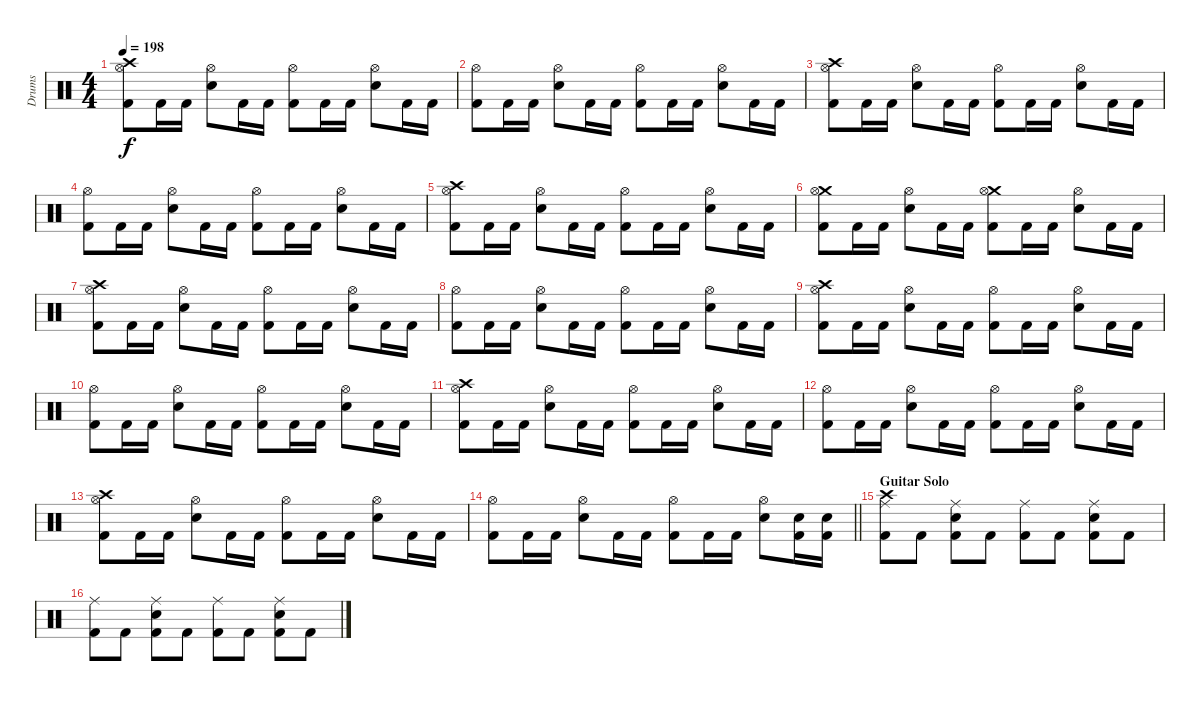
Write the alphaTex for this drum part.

\track ("Drums" "Drums") {instrument percussion}
\staff {score}
\articulation defaults
\ts (4 4)
\tempo 198
\clef neutral
\ks c
("Crash high (hit)" "Hi-Hat (open)" "Kick (hit) 2").8{dy f} "Kick (hit) 2".16 "Kick (hit) 2".16 ("Hi-Hat (open)" "Snare (hit) 2").8 "Kick (hit) 2".16 "Kick (hit) 2".16 ("Hi-Hat (open)" "Kick (hit) 2").8 "Kick (hit) 2".16 "Kick (hit) 2".16 ("Hi-Hat (open)" "Snare (hit) 2").8 "Kick (hit) 2".16 "Kick (hit) 2".16 |
("Hi-Hat (open)" "Kick (hit) 2").8 "Kick (hit) 2".16 "Kick (hit) 2".16 ("Hi-Hat (open)" "Snare (hit) 2").8 "Kick (hit) 2".16 "Kick (hit) 2".16 ("Hi-Hat (open)" "Kick (hit) 2").8 "Kick (hit) 2".16 "Kick (hit) 2".16 ("Hi-Hat (open)" "Snare (hit) 2").8 "Kick (hit) 2".16 "Kick (hit) 2".16 |
("Crash high (hit)" "Hi-Hat (open)" "Kick (hit) 2").8 "Kick (hit) 2".16 "Kick (hit) 2".16 ("Hi-Hat (open)" "Snare (hit) 2").8 "Kick (hit) 2".16 "Kick (hit) 2".16 ("Hi-Hat (open)" "Kick (hit) 2").8 "Kick (hit) 2".16 "Kick (hit) 2".16 ("Hi-Hat (open)" "Snare (hit) 2").8 "Kick (hit) 2".16 "Kick (hit) 2".16 |
("Hi-Hat (open)" "Kick (hit) 2").8 "Kick (hit) 2".16 "Kick (hit) 2".16 ("Hi-Hat (open)" "Snare (hit) 2").8 "Kick (hit) 2".16 "Kick (hit) 2".16 ("Hi-Hat (open)" "Kick (hit) 2").8 "Kick (hit) 2".16 "Kick (hit) 2".16 ("Hi-Hat (open)" "Snare (hit) 2").8 "Kick (hit) 2".16 "Kick (hit) 2".16 |
("Crash high (hit)" "Hi-Hat (open)" "Kick (hit) 2").8 "Kick (hit) 2".16 "Kick (hit) 2".16 ("Hi-Hat (open)" "Snare (hit) 2").8 "Kick (hit) 2".16 "Kick (hit) 2".16 ("Hi-Hat (open)" "Kick (hit) 2").8 "Kick (hit) 2".16 "Kick (hit) 2".16 ("Hi-Hat (open)" "Snare (hit) 2").8 "Kick (hit) 2".16 "Kick (hit) 2".16 |
("Crash medium (hit)" "Hi-Hat (open)" "Kick (hit) 2").8 "Kick (hit) 2".16 "Kick (hit) 2".16 ("Hi-Hat (open)" "Snare (hit) 2").8 "Kick (hit) 2".16 "Kick (hit) 2".16 ("Crash medium (hit)" "Hi-Hat (open)" "Kick (hit) 2").8 "Kick (hit) 2".16 "Kick (hit) 2".16 ("Hi-Hat (open)" "Snare (hit) 2").8 "Kick (hit) 2".16 "Kick (hit) 2".16 |
("Crash high (hit)" "Hi-Hat (open)" "Kick (hit) 2").8 "Kick (hit) 2".16 "Kick (hit) 2".16 ("Hi-Hat (open)" "Snare (hit) 2").8 "Kick (hit) 2".16 "Kick (hit) 2".16 ("Hi-Hat (open)" "Kick (hit) 2").8 "Kick (hit) 2".16 "Kick (hit) 2".16 ("Hi-Hat (open)" "Snare (hit) 2").8 "Kick (hit) 2".16 "Kick (hit) 2".16 |
("Hi-Hat (open)" "Kick (hit) 2").8 "Kick (hit) 2".16 "Kick (hit) 2".16 ("Hi-Hat (open)" "Snare (hit) 2").8 "Kick (hit) 2".16 "Kick (hit) 2".16 ("Hi-Hat (open)" "Kick (hit) 2").8 "Kick (hit) 2".16 "Kick (hit) 2".16 ("Hi-Hat (open)" "Snare (hit) 2").8 "Kick (hit) 2".16 "Kick (hit) 2".16 |
("Crash high (hit)" "Hi-Hat (open)" "Kick (hit) 2").8 "Kick (hit) 2".16 "Kick (hit) 2".16 ("Hi-Hat (open)" "Snare (hit) 2").8 "Kick (hit) 2".16 "Kick (hit) 2".16 ("Hi-Hat (open)" "Kick (hit) 2").8 "Kick (hit) 2".16 "Kick (hit) 2".16 ("Hi-Hat (open)" "Snare (hit) 2").8 "Kick (hit) 2".16 "Kick (hit) 2".16 |
("Hi-Hat (open)" "Kick (hit) 2").8 "Kick (hit) 2".16 "Kick (hit) 2".16 ("Hi-Hat (open)" "Snare (hit) 2").8 "Kick (hit) 2".16 "Kick (hit) 2".16 ("Hi-Hat (open)" "Kick (hit) 2").8 "Kick (hit) 2".16 "Kick (hit) 2".16 ("Hi-Hat (open)" "Snare (hit) 2").8 "Kick (hit) 2".16 "Kick (hit) 2".16 |
("Crash high (hit)" "Hi-Hat (open)" "Kick (hit) 2").8 "Kick (hit) 2".16 "Kick (hit) 2".16 ("Hi-Hat (open)" "Snare (hit) 2").8 "Kick (hit) 2".16 "Kick (hit) 2".16 ("Hi-Hat (open)" "Kick (hit) 2").8 "Kick (hit) 2".16 "Kick (hit) 2".16 ("Hi-Hat (open)" "Snare (hit) 2").8 "Kick (hit) 2".16 "Kick (hit) 2".16 |
("Hi-Hat (open)" "Kick (hit) 2").8 "Kick (hit) 2".16 "Kick (hit) 2".16 ("Hi-Hat (open)" "Snare (hit) 2").8 "Kick (hit) 2".16 "Kick (hit) 2".16 ("Hi-Hat (open)" "Kick (hit) 2").8 "Kick (hit) 2".16 "Kick (hit) 2".16 ("Hi-Hat (open)" "Snare (hit) 2").8 "Kick (hit) 2".16 "Kick (hit) 2".16 |
("Crash high (hit)" "Hi-Hat (open)" "Kick (hit) 2").8 "Kick (hit) 2".16 "Kick (hit) 2".16 ("Hi-Hat (open)" "Snare (hit) 2").8 "Kick (hit) 2".16 "Kick (hit) 2".16 ("Hi-Hat (open)" "Kick (hit) 2").8 "Kick (hit) 2".16 "Kick (hit) 2".16 ("Hi-Hat (open)" "Snare (hit) 2").8 "Kick (hit) 2".16 "Kick (hit) 2".16 |
\barLineRight lightlight
("Hi-Hat (open)" "Kick (hit) 2").8 "Kick (hit) 2".16 "Kick (hit) 2".16 ("Hi-Hat (open)" "Snare (hit) 2").8 "Kick (hit) 2".16 "Kick (hit) 2".16 ("Hi-Hat (open)" "Kick (hit) 2").8 "Kick (hit) 2".16 "Kick (hit) 2".16 ("Hi-Hat (open)" "Snare (hit) 2").8 ("Snare (hit) 2" "Kick (hit) 2").16 ("Snare (hit) 2" "Kick (hit) 2").16 |
\section ("" "Guitar Solo")
("Crash high (hit)" "Ride (middle)" "Kick (hit) 2").8 "Kick (hit) 2".8 ("Ride (middle)" "Snare (hit) 2" "Kick (hit) 2").8 "Kick (hit) 2".8 ("Ride (middle)" "Kick (hit) 2").8 "Kick (hit) 2".8 ("Ride (middle)" "Snare (hit) 2" "Kick (hit) 2").8 "Kick (hit) 2".8 |
("Ride (middle)" "Kick (hit) 2").8 "Kick (hit) 2".8 ("Ride (middle)" "Snare (hit) 2" "Kick (hit) 2").8 "Kick (hit) 2".8 ("Ride (middle)" "Kick (hit) 2").8 "Kick (hit) 2".8 ("Ride (middle)" "Snare (hit) 2" "Kick (hit) 2").8 "Kick (hit) 2".8
